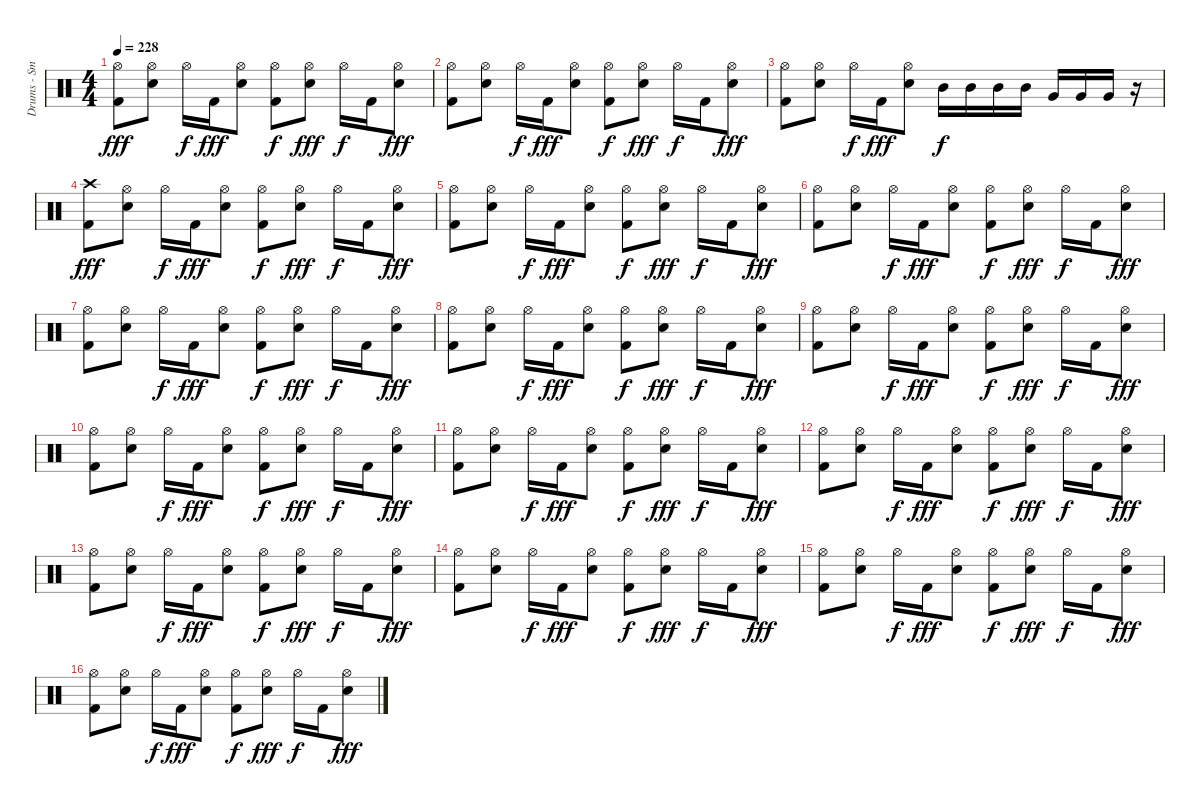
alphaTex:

\track ("Drums - Smelly" "Drums - Sm") {instrument percussion}
\staff {score}
\articulation defaults
\ts (4 4)
\tempo 228
\clef neutral
\ks c
("Hi-Hat (open)" "Kick (hit) 2").8{dy fff} ("Hi-Hat (open)" "Electric Snare (hit)").8 "Hi-Hat (open)".16{dy f} "Kick (hit) 2".16{dy fff} ("Hi-Hat (open)" "Electric Snare (hit)").8 ("Hi-Hat (open)" "Kick (hit) 2").8{dy f} ("Hi-Hat (open)" "Electric Snare (hit)").8{dy fff} "Hi-Hat (open)".16{dy f} "Kick (hit) 2".16 ("Hi-Hat (open)" "Electric Snare (hit)").8{dy fff} |
("Hi-Hat (open)" "Kick (hit) 2").8 ("Hi-Hat (open)" "Electric Snare (hit)").8 "Hi-Hat (open)".16{dy f} "Kick (hit) 2".16{dy fff} ("Hi-Hat (open)" "Electric Snare (hit)").8 ("Hi-Hat (open)" "Kick (hit) 2").8{dy f} ("Hi-Hat (open)" "Electric Snare (hit)").8{dy fff} "Hi-Hat (open)".16{dy f} "Kick (hit) 2".16 ("Hi-Hat (open)" "Electric Snare (hit)").8{dy fff} |
("Hi-Hat (open)" "Kick (hit) 2").8 ("Hi-Hat (open)" "Electric Snare (hit)").8 "Hi-Hat (open)".16{dy f} "Kick (hit) 2".16{dy fff} ("Hi-Hat (open)" "Electric Snare (hit)").8 "Mid Tom (hit)".16{dy f} "Mid Tom (hit)".16 "Mid Tom (hit)".16 "Mid Tom (hit)".16 "Very Low Tom (hit)".16 "Very Low Tom (hit)".16 "Very Low Tom (hit)".16 r.16 |
("Crash high (hit)" "Kick (hit) 2").8{dy fff} ("Hi-Hat (open)" "Electric Snare (hit)").8 "Hi-Hat (open)".16{dy f} "Kick (hit) 2".16{dy fff} ("Hi-Hat (open)" "Electric Snare (hit)").8 ("Hi-Hat (open)" "Kick (hit) 2").8{dy f} ("Hi-Hat (open)" "Electric Snare (hit)").8{dy fff} "Hi-Hat (open)".16{dy f} "Kick (hit) 2".16 ("Hi-Hat (open)" "Electric Snare (hit)").8{dy fff} |
("Hi-Hat (open)" "Kick (hit) 2").8 ("Hi-Hat (open)" "Electric Snare (hit)").8 "Hi-Hat (open)".16{dy f} "Kick (hit) 2".16{dy fff} ("Hi-Hat (open)" "Electric Snare (hit)").8 ("Hi-Hat (open)" "Kick (hit) 2").8{dy f} ("Hi-Hat (open)" "Electric Snare (hit)").8{dy fff} "Hi-Hat (open)".16{dy f} "Kick (hit) 2".16 ("Hi-Hat (open)" "Electric Snare (hit)").8{dy fff} |
("Hi-Hat (open)" "Kick (hit) 2").8 ("Hi-Hat (open)" "Electric Snare (hit)").8 "Hi-Hat (open)".16{dy f} "Kick (hit) 2".16{dy fff} ("Hi-Hat (open)" "Electric Snare (hit)").8 ("Hi-Hat (open)" "Kick (hit) 2").8{dy f} ("Hi-Hat (open)" "Electric Snare (hit)").8{dy fff} "Hi-Hat (open)".16{dy f} "Kick (hit) 2".16 ("Hi-Hat (open)" "Electric Snare (hit)").8{dy fff} |
("Hi-Hat (open)" "Kick (hit) 2").8 ("Hi-Hat (open)" "Electric Snare (hit)").8 "Hi-Hat (open)".16{dy f} "Kick (hit) 2".16{dy fff} ("Hi-Hat (open)" "Electric Snare (hit)").8 ("Hi-Hat (open)" "Kick (hit) 2").8{dy f} ("Hi-Hat (open)" "Electric Snare (hit)").8{dy fff} "Hi-Hat (open)".16{dy f} "Kick (hit) 2".16 ("Hi-Hat (open)" "Electric Snare (hit)").8{dy fff} |
("Hi-Hat (open)" "Kick (hit) 2").8 ("Hi-Hat (open)" "Electric Snare (hit)").8 "Hi-Hat (open)".16{dy f} "Kick (hit) 2".16{dy fff} ("Hi-Hat (open)" "Electric Snare (hit)").8 ("Hi-Hat (open)" "Kick (hit) 2").8{dy f} ("Hi-Hat (open)" "Electric Snare (hit)").8{dy fff} "Hi-Hat (open)".16{dy f} "Kick (hit) 2".16 ("Hi-Hat (open)" "Electric Snare (hit)").8{dy fff} |
("Hi-Hat (open)" "Kick (hit) 2").8 ("Hi-Hat (open)" "Electric Snare (hit)").8 "Hi-Hat (open)".16{dy f} "Kick (hit) 2".16{dy fff} ("Hi-Hat (open)" "Electric Snare (hit)").8 ("Hi-Hat (open)" "Kick (hit) 2").8{dy f} ("Hi-Hat (open)" "Electric Snare (hit)").8{dy fff} "Hi-Hat (open)".16{dy f} "Kick (hit) 2".16 ("Hi-Hat (open)" "Electric Snare (hit)").8{dy fff} |
("Hi-Hat (open)" "Kick (hit) 2").8 ("Hi-Hat (open)" "Electric Snare (hit)").8 "Hi-Hat (open)".16{dy f} "Kick (hit) 2".16{dy fff} ("Hi-Hat (open)" "Electric Snare (hit)").8 ("Hi-Hat (open)" "Kick (hit) 2").8{dy f} ("Hi-Hat (open)" "Electric Snare (hit)").8{dy fff} "Hi-Hat (open)".16{dy f} "Kick (hit) 2".16 ("Hi-Hat (open)" "Electric Snare (hit)").8{dy fff} |
("Hi-Hat (open)" "Kick (hit) 2").8 ("Hi-Hat (open)" "Electric Snare (hit)").8 "Hi-Hat (open)".16{dy f} "Kick (hit) 2".16{dy fff} ("Hi-Hat (open)" "Electric Snare (hit)").8 ("Hi-Hat (open)" "Kick (hit) 2").8{dy f} ("Hi-Hat (open)" "Electric Snare (hit)").8{dy fff} "Hi-Hat (open)".16{dy f} "Kick (hit) 2".16 ("Hi-Hat (open)" "Electric Snare (hit)").8{dy fff} |
("Hi-Hat (open)" "Kick (hit) 2").8 ("Hi-Hat (open)" "Electric Snare (hit)").8 "Hi-Hat (open)".16{dy f} "Kick (hit) 2".16{dy fff} ("Hi-Hat (open)" "Electric Snare (hit)").8 ("Hi-Hat (open)" "Kick (hit) 2").8{dy f} ("Hi-Hat (open)" "Electric Snare (hit)").8{dy fff} "Hi-Hat (open)".16{dy f} "Kick (hit) 2".16 ("Hi-Hat (open)" "Electric Snare (hit)").8{dy fff} |
("Hi-Hat (open)" "Kick (hit) 2").8 ("Hi-Hat (open)" "Electric Snare (hit)").8 "Hi-Hat (open)".16{dy f} "Kick (hit) 2".16{dy fff} ("Hi-Hat (open)" "Electric Snare (hit)").8 ("Hi-Hat (open)" "Kick (hit) 2").8{dy f} ("Hi-Hat (open)" "Electric Snare (hit)").8{dy fff} "Hi-Hat (open)".16{dy f} "Kick (hit) 2".16 ("Hi-Hat (open)" "Electric Snare (hit)").8{dy fff} |
("Hi-Hat (open)" "Kick (hit) 2").8 ("Hi-Hat (open)" "Electric Snare (hit)").8 "Hi-Hat (open)".16{dy f} "Kick (hit) 2".16{dy fff} ("Hi-Hat (open)" "Electric Snare (hit)").8 ("Hi-Hat (open)" "Kick (hit) 2").8{dy f} ("Hi-Hat (open)" "Electric Snare (hit)").8{dy fff} "Hi-Hat (open)".16{dy f} "Kick (hit) 2".16 ("Hi-Hat (open)" "Electric Snare (hit)").8{dy fff} |
("Hi-Hat (open)" "Kick (hit) 2").8 ("Hi-Hat (open)" "Electric Snare (hit)").8 "Hi-Hat (open)".16{dy f} "Kick (hit) 2".16{dy fff} ("Hi-Hat (open)" "Electric Snare (hit)").8 ("Hi-Hat (open)" "Kick (hit) 2").8{dy f} ("Hi-Hat (open)" "Electric Snare (hit)").8{dy fff} "Hi-Hat (open)".16{dy f} "Kick (hit) 2".16 ("Hi-Hat (open)" "Electric Snare (hit)").8{dy fff} |
("Hi-Hat (open)" "Kick (hit) 2").8 ("Hi-Hat (open)" "Electric Snare (hit)").8 "Hi-Hat (open)".16{dy f} "Kick (hit) 2".16{dy fff} ("Hi-Hat (open)" "Electric Snare (hit)").8 ("Hi-Hat (open)" "Kick (hit) 2").8{dy f} ("Hi-Hat (open)" "Electric Snare (hit)").8{dy fff} "Hi-Hat (open)".16{dy f} "Kick (hit) 2".16 ("Hi-Hat (open)" "Electric Snare (hit)").8{dy fff}
